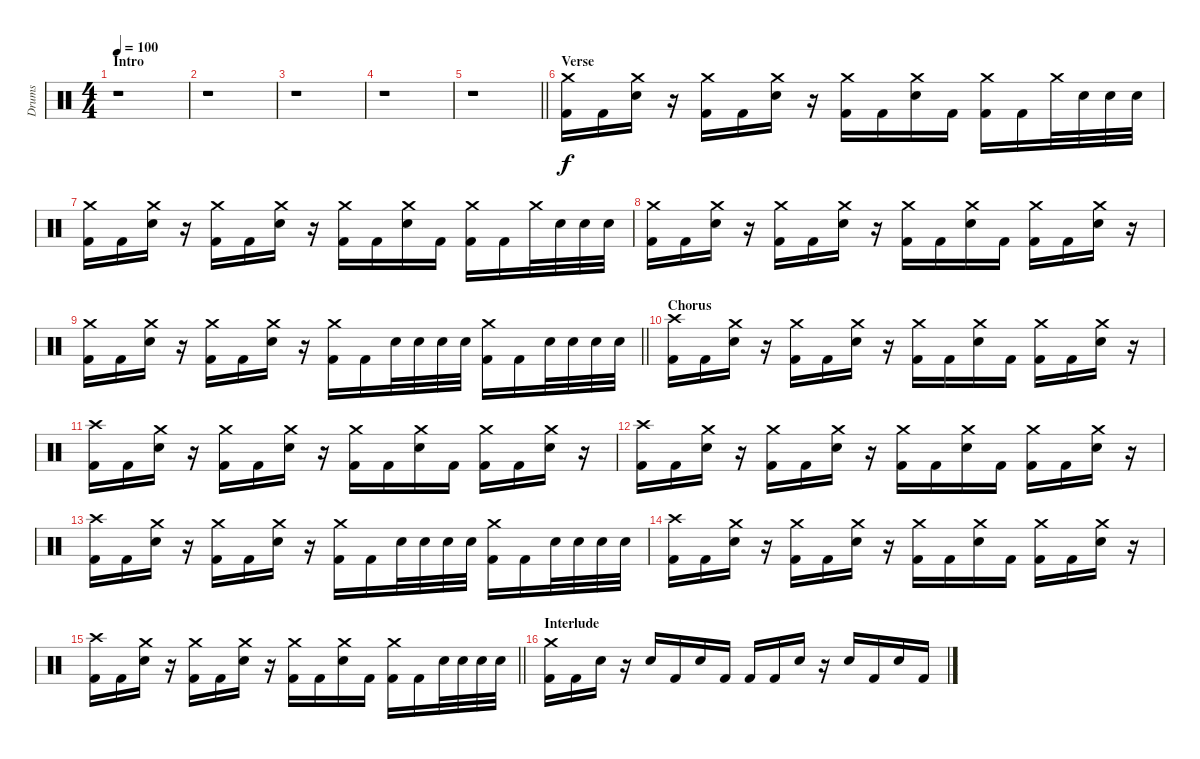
\track ("Drums" "Drums") {instrument percussion}
\staff {score}
\articulation defaults
\ts (4 4)
\section ("" "Intro")
\tempo 100
\clef neutral
\ks c
r.1{dy f} |
r.1 |
r.1 |
r.1 |
\barLineRight lightlight
r.1 |
\section ("" "Verse")
("Crash medium (hit)" "Kick (hit) 2").16 "Kick (hit) 2".16 ("Crash medium (hit)" "Electric Snare (hit)").16 r.16 ("Crash medium (hit)" "Kick (hit) 2").16 "Kick (hit) 2".16 ("Crash medium (hit)" "Electric Snare (hit)").16 r.16 ("Crash medium (hit)" "Kick (hit) 2").16 "Kick (hit) 2".16 ("Crash medium (hit)" "Electric Snare (hit)").16 "Kick (hit) 2".16 ("Crash medium (hit)" "Kick (hit) 2").16 "Kick (hit) 2".16 "Crash medium (hit)".32 "Electric Snare (hit)".32 "Electric Snare (hit)".32 "Electric Snare (hit)".32 |
("Crash medium (hit)" "Kick (hit) 2").16 "Kick (hit) 2".16 ("Crash medium (hit)" "Electric Snare (hit)").16 r.16 ("Crash medium (hit)" "Kick (hit) 2").16 "Kick (hit) 2".16 ("Crash medium (hit)" "Electric Snare (hit)").16 r.16 ("Crash medium (hit)" "Kick (hit) 2").16 "Kick (hit) 2".16 ("Crash medium (hit)" "Electric Snare (hit)").16 "Kick (hit) 2".16 ("Crash medium (hit)" "Kick (hit) 2").16 "Kick (hit) 2".16 "Crash medium (hit)".32 "Electric Snare (hit)".32 "Electric Snare (hit)".32 "Electric Snare (hit)".32 |
("Crash medium (hit)" "Kick (hit) 2").16 "Kick (hit) 2".16 ("Crash medium (hit)" "Electric Snare (hit)").16 r.16 ("Crash medium (hit)" "Kick (hit) 2").16 "Kick (hit) 2".16 ("Crash medium (hit)" "Electric Snare (hit)").16 r.16 ("Crash medium (hit)" "Kick (hit) 2").16 "Kick (hit) 2".16 ("Crash medium (hit)" "Electric Snare (hit)").16 "Kick (hit) 2".16 ("Crash medium (hit)" "Kick (hit) 2").16 "Kick (hit) 2".16 ("Crash medium (hit)" "Electric Snare (hit)").16 r.16 |
\barLineRight lightlight
("Crash medium (hit)" "Kick (hit) 2").16 "Kick (hit) 2".16 ("Crash medium (hit)" "Electric Snare (hit)").16 r.16 ("Crash medium (hit)" "Kick (hit) 2").16 "Kick (hit) 2".16 ("Crash medium (hit)" "Electric Snare (hit)").16 r.16 ("Crash medium (hit)" "Kick (hit) 2").16 "Kick (hit) 2".16 "Electric Snare (hit)".32 "Electric Snare (hit)".32 "Electric Snare (hit)".32 "Electric Snare (hit)".32 ("Crash medium (hit)" "Kick (hit) 2").16 "Kick (hit) 2".16 "Electric Snare (hit)".32 "Electric Snare (hit)".32 "Electric Snare (hit)".32 "Electric Snare (hit)".32 |
\section ("" "Chorus")
("Crash high (hit)" "Kick (hit) 2").16 "Kick (hit) 2".16 ("Crash medium (hit)" "Electric Snare (hit)").16 r.16 ("Crash medium (hit)" "Kick (hit) 2").16 "Kick (hit) 2".16 ("Crash medium (hit)" "Electric Snare (hit)").16 r.16 ("Crash medium (hit)" "Kick (hit) 2").16 "Kick (hit) 2".16 ("Crash medium (hit)" "Electric Snare (hit)").16 "Kick (hit) 2".16 ("Crash medium (hit)" "Kick (hit) 2").16 "Kick (hit) 2".16 ("Crash medium (hit)" "Electric Snare (hit)").16 r.16 |
("Crash high (hit)" "Kick (hit) 2").16 "Kick (hit) 2".16 ("Crash medium (hit)" "Electric Snare (hit)").16 r.16 ("Crash medium (hit)" "Kick (hit) 2").16 "Kick (hit) 2".16 ("Crash medium (hit)" "Electric Snare (hit)").16 r.16 ("Crash medium (hit)" "Kick (hit) 2").16 "Kick (hit) 2".16 ("Crash medium (hit)" "Electric Snare (hit)").16 "Kick (hit) 2".16 ("Crash medium (hit)" "Kick (hit) 2").16 "Kick (hit) 2".16 ("Crash medium (hit)" "Electric Snare (hit)").16 r.16 |
("Crash high (hit)" "Kick (hit) 2").16 "Kick (hit) 2".16 ("Crash medium (hit)" "Electric Snare (hit)").16 r.16 ("Crash medium (hit)" "Kick (hit) 2").16 "Kick (hit) 2".16 ("Crash medium (hit)" "Electric Snare (hit)").16 r.16 ("Crash medium (hit)" "Kick (hit) 2").16 "Kick (hit) 2".16 ("Crash medium (hit)" "Electric Snare (hit)").16 "Kick (hit) 2".16 ("Crash medium (hit)" "Kick (hit) 2").16 "Kick (hit) 2".16 ("Crash medium (hit)" "Electric Snare (hit)").16 r.16 |
("Crash high (hit)" "Kick (hit) 2").16 "Kick (hit) 2".16 ("Crash medium (hit)" "Electric Snare (hit)").16 r.16 ("Crash medium (hit)" "Kick (hit) 2").16 "Kick (hit) 2".16 ("Crash medium (hit)" "Electric Snare (hit)").16 r.16 ("Crash medium (hit)" "Kick (hit) 2").16 "Kick (hit) 2".16 "Electric Snare (hit)".32 "Electric Snare (hit)".32 "Electric Snare (hit)".32 "Electric Snare (hit)".32 ("Crash medium (hit)" "Kick (hit) 2").16 "Kick (hit) 2".16 "Electric Snare (hit)".32 "Electric Snare (hit)".32 "Electric Snare (hit)".32 "Electric Snare (hit)".32 |
("Crash high (hit)" "Kick (hit) 2").16 "Kick (hit) 2".16 ("Crash medium (hit)" "Electric Snare (hit)").16 r.16 ("Crash medium (hit)" "Kick (hit) 2").16 "Kick (hit) 2".16 ("Crash medium (hit)" "Electric Snare (hit)").16 r.16 ("Crash medium (hit)" "Kick (hit) 2").16 "Kick (hit) 2".16 ("Crash medium (hit)" "Electric Snare (hit)").16 "Kick (hit) 2".16 ("Crash medium (hit)" "Kick (hit) 2").16 "Kick (hit) 2".16 ("Crash medium (hit)" "Electric Snare (hit)").16 r.16 |
\barLineRight lightlight
("Crash high (hit)" "Kick (hit) 2").16 "Kick (hit) 2".16 ("Crash medium (hit)" "Electric Snare (hit)").16 r.16 ("Crash medium (hit)" "Kick (hit) 2").16 "Kick (hit) 2".16 ("Crash medium (hit)" "Electric Snare (hit)").16 r.16 ("Crash medium (hit)" "Kick (hit) 2").16 "Kick (hit) 2".16 ("Crash medium (hit)" "Electric Snare (hit)").16 "Kick (hit) 2".16 ("Crash medium (hit)" "Kick (hit) 2").16 "Kick (hit) 2".16 "Electric Snare (hit)".32 "Electric Snare (hit)".32 "Electric Snare (hit)".32 "Electric Snare (hit)".32 |
\section ("" "Interlude")
("Crash medium (hit)" "Kick (hit) 2").16 "Kick (hit) 2".16 "Electric Snare (hit)".16 r.16 "Electric Snare (hit)".16 "Kick (hit) 2".16 "Electric Snare (hit)".16 "Kick (hit) 2".16 "Kick (hit) 2".16 "Kick (hit) 2".16 "Electric Snare (hit)".16 r.16 "Electric Snare (hit)".16 "Kick (hit) 2".16 "Electric Snare (hit)".16 "Kick (hit) 2".16
